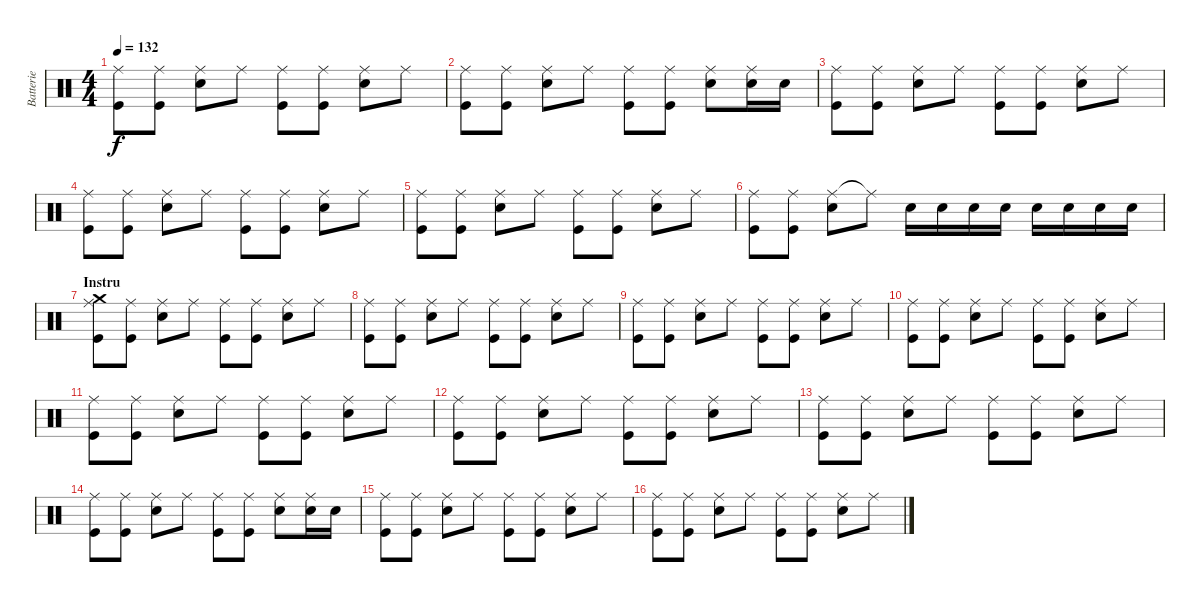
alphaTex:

\track ("Batterie" "Batterie") {instrument percussion}
\staff {score}
\articulation defaults
\ts (4 4)
\tempo 132
\clef neutral
\ks c
("Ride (middle)" "Kick (hit)").8{dy f} ("Ride (middle)" "Kick (hit)").8 ("Ride (middle)" "Snare (hit) 2").8 "Ride (middle)".8 ("Ride (middle)" "Kick (hit)").8 ("Ride (middle)" "Kick (hit)").8 ("Ride (middle)" "Snare (hit) 2").8 "Ride (middle)".8 |
("Ride (middle)" "Kick (hit)").8 ("Ride (middle)" "Kick (hit)").8 ("Ride (middle)" "Snare (hit) 2").8 "Ride (middle)".8 ("Ride (middle)" "Kick (hit)").8 ("Ride (middle)" "Kick (hit)").8 ("Ride (middle)" "Snare (hit) 2").8 ("Ride (middle)" "Snare (hit) 2").16 "Snare (hit) 2".16 |
("Ride (middle)" "Kick (hit)").8 ("Ride (middle)" "Kick (hit)").8 ("Ride (middle)" "Snare (hit) 2").8 "Ride (middle)".8 ("Ride (middle)" "Kick (hit)").8 ("Ride (middle)" "Kick (hit)").8 ("Ride (middle)" "Snare (hit) 2").8 "Ride (middle)".8 |
("Ride (middle)" "Kick (hit)").8 ("Ride (middle)" "Kick (hit)").8 ("Ride (middle)" "Snare (hit) 2").8 "Ride (middle)".8 ("Ride (middle)" "Kick (hit)").8 ("Ride (middle)" "Kick (hit)").8 ("Ride (middle)" "Snare (hit) 2").8 "Ride (middle)".8 |
("Ride (middle)" "Kick (hit)").8 ("Ride (middle)" "Kick (hit)").8 ("Ride (middle)" "Snare (hit) 2").8 "Ride (middle)".8 ("Ride (middle)" "Kick (hit)").8 ("Ride (middle)" "Kick (hit)").8 ("Ride (middle)" "Snare (hit) 2").8 "Ride (middle)".8 |
("Ride (middle)" "Kick (hit)").8 ("Ride (middle)" "Kick (hit)").8 ("Ride (middle)" "Snare (hit) 2").8 "Ride (middle)"{t}.8 "Snare (hit) 2".16 "Snare (hit) 2".16 "Snare (hit) 2".16 "Snare (hit) 2".16 "Snare (hit) 2".16 "Snare (hit) 2".16 "Snare (hit) 2".16 "Snare (hit) 2".16 |
\section ("" "Instru")
("Ride (middle)" "Crash medium (hit)" "Kick (hit)").8 ("Ride (middle)" "Kick (hit)").8 ("Ride (middle)" "Snare (hit) 2").8 "Ride (middle)".8 ("Ride (middle)" "Kick (hit)").8 ("Ride (middle)" "Kick (hit)").8 ("Ride (middle)" "Snare (hit) 2").8 "Ride (middle)".8 |
("Ride (middle)" "Kick (hit)").8 ("Ride (middle)" "Kick (hit)").8 ("Ride (middle)" "Snare (hit) 2").8 "Ride (middle)".8 ("Ride (middle)" "Kick (hit)").8 ("Ride (middle)" "Kick (hit)").8 ("Ride (middle)" "Snare (hit) 2").8 "Ride (middle)".8 |
("Ride (middle)" "Kick (hit)").8 ("Ride (middle)" "Kick (hit)").8 ("Ride (middle)" "Snare (hit) 2").8 "Ride (middle)".8 ("Ride (middle)" "Kick (hit)").8 ("Ride (middle)" "Kick (hit)").8 ("Ride (middle)" "Snare (hit) 2").8 "Ride (middle)".8 |
("Ride (middle)" "Kick (hit)").8 ("Ride (middle)" "Kick (hit)").8 ("Ride (middle)" "Snare (hit) 2").8 "Ride (middle)".8 ("Ride (middle)" "Kick (hit)").8 ("Ride (middle)" "Kick (hit)").8 ("Ride (middle)" "Snare (hit) 2").8 "Ride (middle)".8 |
("Ride (middle)" "Kick (hit)").8 ("Ride (middle)" "Kick (hit)").8 ("Ride (middle)" "Snare (hit) 2").8 "Ride (middle)".8 ("Ride (middle)" "Kick (hit)").8 ("Ride (middle)" "Kick (hit)").8 ("Ride (middle)" "Snare (hit) 2").8 "Ride (middle)".8 |
("Ride (middle)" "Kick (hit)").8 ("Ride (middle)" "Kick (hit)").8 ("Ride (middle)" "Snare (hit) 2").8 "Ride (middle)".8 ("Ride (middle)" "Kick (hit)").8 ("Ride (middle)" "Kick (hit)").8 ("Ride (middle)" "Snare (hit) 2").8 "Ride (middle)".8 |
("Ride (middle)" "Kick (hit)").8 ("Ride (middle)" "Kick (hit)").8 ("Ride (middle)" "Snare (hit) 2").8 "Ride (middle)".8 ("Ride (middle)" "Kick (hit)").8 ("Ride (middle)" "Kick (hit)").8 ("Ride (middle)" "Snare (hit) 2").8 "Ride (middle)".8 |
("Ride (middle)" "Kick (hit)").8 ("Ride (middle)" "Kick (hit)").8 ("Ride (middle)" "Snare (hit) 2").8 "Ride (middle)".8 ("Ride (middle)" "Kick (hit)").8 ("Ride (middle)" "Kick (hit)").8 ("Ride (middle)" "Snare (hit) 2").8 ("Ride (middle)" "Snare (hit) 2").16 "Snare (hit) 2".16 |
("Ride (middle)" "Kick (hit)").8 ("Ride (middle)" "Kick (hit)").8 ("Ride (middle)" "Snare (hit) 2").8 "Ride (middle)".8 ("Ride (middle)" "Kick (hit)").8 ("Ride (middle)" "Kick (hit)").8 ("Ride (middle)" "Snare (hit) 2").8 "Ride (middle)".8 |
("Ride (middle)" "Kick (hit)").8 ("Ride (middle)" "Kick (hit)").8 ("Ride (middle)" "Snare (hit) 2").8 "Ride (middle)".8 ("Ride (middle)" "Kick (hit)").8 ("Ride (middle)" "Kick (hit)").8 ("Ride (middle)" "Snare (hit) 2").8 "Ride (middle)".8
